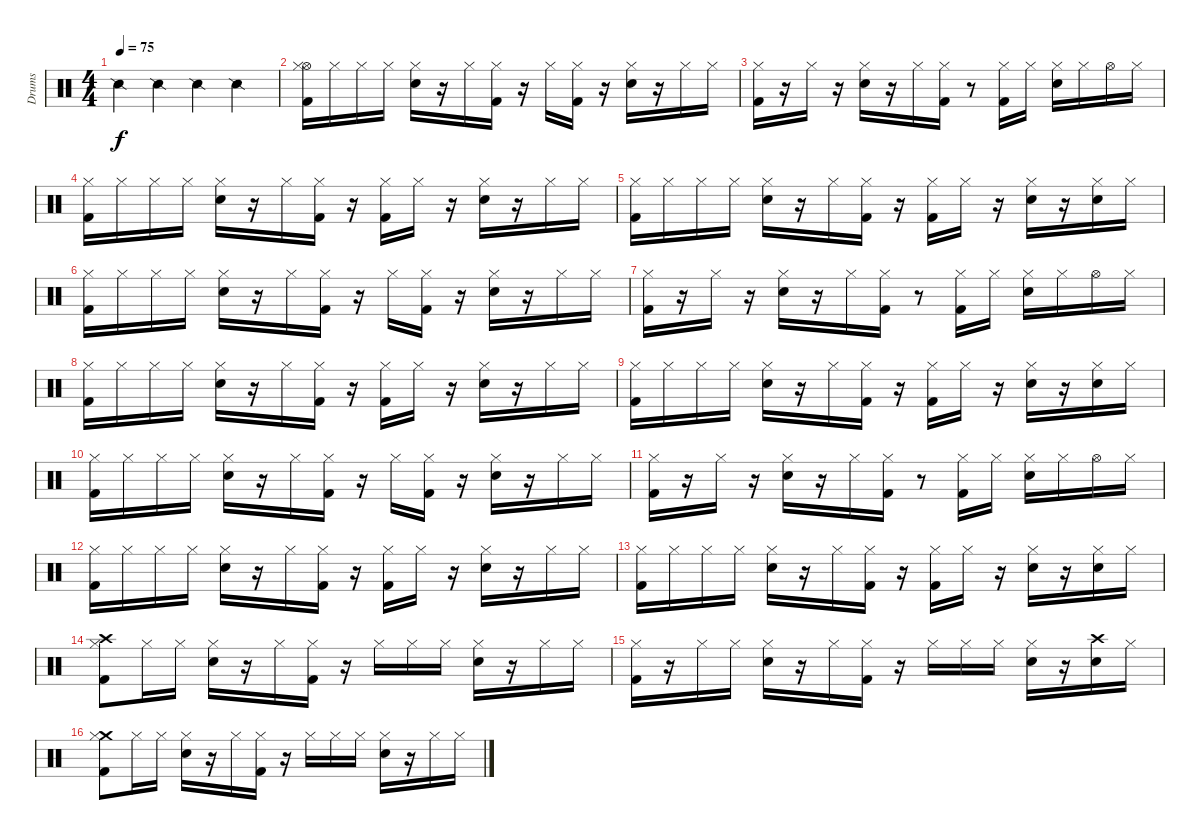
\track ("Drums" "Drums") {instrument percussion}
\staff {score}
\articulation defaults
\ts (4 4)
\tempo 75
\clef neutral
\ks c "Snare (side stick) 2".4{dy f} "Snare (side stick) 2".4 "Snare (side stick) 2".4 "Snare (side stick) 2".4
|
("Kick (hit) 2" "Hi-Hat (open)" "Hi-Hat (closed)").16 "Hi-Hat (closed)".16 "Hi-Hat (closed)".16 "Hi-Hat (closed)".16 ("Hi-Hat (closed)" "Snare (hit) 2").16 r.16 "Hi-Hat (closed)".16 ("Kick (hit) 2" "Hi-Hat (closed)").16 r.16 "Hi-Hat (closed)".16 ("Kick (hit) 2" "Hi-Hat (closed)").16 r.16 ("Hi-Hat (closed)" "Snare (hit) 2").16 r.16 "Hi-Hat (closed)".16 "Hi-Hat (closed)".16 |
("Kick (hit) 2" "Hi-Hat (closed)").16 r.16 "Hi-Hat (closed)".16 r.16 ("Snare (hit) 2" "Hi-Hat (closed)").16 r.16 "Hi-Hat (closed)".16 ("Hi-Hat (closed)" "Kick (hit) 2").16 r.8 ("Hi-Hat (closed)" "Kick (hit) 2").16 "Hi-Hat (closed)".16 ("Snare (hit) 2" "Hi-Hat (closed)").16 "Hi-Hat (closed)".16 "Hi-Hat (open)".16 "Hi-Hat (closed)".16 |
("Hi-Hat (closed)" "Kick (hit) 2").16 "Hi-Hat (closed)".16 "Hi-Hat (closed)".16 "Hi-Hat (closed)".16 ("Snare (hit) 2" "Hi-Hat (closed)").16 r.16 "Hi-Hat (closed)".16 ("Hi-Hat (closed)" "Kick (hit) 2").16 r.16 ("Hi-Hat (closed)" "Kick (hit) 2").16 "Hi-Hat (closed)".16 r.16 ("Snare (hit) 2" "Hi-Hat (closed)").16 r.16 "Hi-Hat (closed)".16 "Hi-Hat (closed)".16 |
("Hi-Hat (closed)" "Kick (hit) 2").16 "Hi-Hat (closed)".16 "Hi-Hat (closed)".16 "Hi-Hat (closed)".16 ("Hi-Hat (closed)" "Snare (hit) 2").16 r.16 "Hi-Hat (closed)".16 ("Kick (hit) 2" "Hi-Hat (closed)").16 r.16 ("Hi-Hat (closed)" "Kick (hit) 2").16 "Hi-Hat (closed)".16 r.16 ("Snare (hit) 2" "Hi-Hat (closed)").16 r.16 ("Snare (hit) 2" "Hi-Hat (closed)").16 "Hi-Hat (closed)".16 |
("Hi-Hat (closed)" "Kick (hit) 2").16 "Hi-Hat (closed)".16 "Hi-Hat (closed)".16 "Hi-Hat (closed)".16 ("Hi-Hat (closed)" "Snare (hit) 2").16 r.16 "Hi-Hat (closed)".16 ("Hi-Hat (closed)" "Kick (hit) 2").16 r.16 "Hi-Hat (closed)".16 ("Hi-Hat (closed)" "Kick (hit) 2").16 r.16 ("Hi-Hat (closed)" "Snare (hit) 2").16 r.16 "Hi-Hat (closed)".16 "Hi-Hat (closed)".16 |
("Kick (hit) 2" "Hi-Hat (closed)").16 r.16 "Hi-Hat (closed)".16 r.16 ("Hi-Hat (closed)" "Snare (hit) 2").16 r.16 "Hi-Hat (closed)".16 ("Kick (hit) 2" "Hi-Hat (closed)").16 r.8 ("Kick (hit) 2" "Hi-Hat (closed)").16 "Hi-Hat (closed)".16 ("Snare (hit) 2" "Hi-Hat (closed)").16 "Hi-Hat (closed)".16 "Hi-Hat (open)".16 "Hi-Hat (closed)".16 |
("Kick (hit) 2" "Hi-Hat (closed)").16 "Hi-Hat (closed)".16 "Hi-Hat (closed)".16 "Hi-Hat (closed)".16 ("Hi-Hat (closed)" "Snare (hit) 2").16 r.16 "Hi-Hat (closed)".16 ("Kick (hit) 2" "Hi-Hat (closed)").16 r.16 ("Kick (hit) 2" "Hi-Hat (closed)").16 "Hi-Hat (closed)".16 r.16 ("Snare (hit) 2" "Hi-Hat (closed)").16 r.16 "Hi-Hat (closed)".16 "Hi-Hat (closed)".16 |
("Kick (hit) 2" "Hi-Hat (closed)").16 "Hi-Hat (closed)".16 "Hi-Hat (closed)".16 "Hi-Hat (closed)".16 ("Snare (hit) 2" "Hi-Hat (closed)").16 r.16 "Hi-Hat (closed)".16 ("Kick (hit) 2" "Hi-Hat (closed)").16 r.16 ("Kick (hit) 2" "Hi-Hat (closed)").16 "Hi-Hat (closed)".16 r.16 ("Snare (hit) 2" "Hi-Hat (closed)").16 r.16 ("Hi-Hat (closed)" "Snare (hit) 2").16 "Hi-Hat (closed)".16 |
("Kick (hit) 2" "Hi-Hat (closed)").16 "Hi-Hat (closed)".16 "Hi-Hat (closed)".16 "Hi-Hat (closed)".16 ("Snare (hit) 2" "Hi-Hat (closed)").16 r.16 "Hi-Hat (closed)".16 ("Kick (hit) 2" "Hi-Hat (closed)").16 r.16 "Hi-Hat (closed)".16 ("Hi-Hat (closed)" "Kick (hit) 2").16 r.16 ("Snare (hit) 2" "Hi-Hat (closed)").16 r.16 "Hi-Hat (closed)".16 "Hi-Hat (closed)".16 |
("Kick (hit) 2" "Hi-Hat (closed)").16 r.16 "Hi-Hat (closed)".16 r.16 ("Hi-Hat (closed)" "Snare (hit) 2").16 r.16 "Hi-Hat (closed)".16 ("Hi-Hat (closed)" "Kick (hit) 2").16 r.8 ("Hi-Hat (closed)" "Kick (hit) 2").16 "Hi-Hat (closed)".16 ("Hi-Hat (closed)" "Snare (hit) 2").16 "Hi-Hat (closed)".16 "Hi-Hat (open)".16 "Hi-Hat (closed)".16 |
("Kick (hit) 2" "Hi-Hat (closed)").16 "Hi-Hat (closed)".16 "Hi-Hat (closed)".16 "Hi-Hat (closed)".16 ("Hi-Hat (closed)" "Snare (hit) 2").16 r.16 "Hi-Hat (closed)".16 ("Hi-Hat (closed)" "Kick (hit) 2").16 r.16 ("Hi-Hat (closed)" "Kick (hit) 2").16 "Hi-Hat (closed)".16 r.16 ("Hi-Hat (closed)" "Snare (hit) 2").16 r.16 "Hi-Hat (closed)".16 "Hi-Hat (closed)".16 |
("Hi-Hat (closed)" "Kick (hit) 2").16 "Hi-Hat (closed)".16 "Hi-Hat (closed)".16 "Hi-Hat (closed)".16 ("Hi-Hat (closed)" "Snare (hit) 2").16 r.16 "Hi-Hat (closed)".16 ("Hi-Hat (closed)" "Kick (hit) 2").16 r.16 ("Hi-Hat (closed)" "Kick (hit) 2").16 "Hi-Hat (closed)".16 r.16 ("Snare (hit) 2" "Hi-Hat (closed)").16 r.16 ("Hi-Hat (closed)" "Snare (hit) 2").16 "Hi-Hat (closed)".16 |
("Crash high (hit)" "Kick (hit) 2" "Hi-Hat (closed)").8 "Hi-Hat (closed)".16 "Hi-Hat (closed)".16 ("Snare (hit) 2" "Hi-Hat (closed)").16 r.16 "Hi-Hat (closed)".16 ("Hi-Hat (closed)" "Kick (hit) 2").16 r.16 "Hi-Hat (closed)".16 "Hi-Hat (closed)".16 "Hi-Hat (closed)".16 ("Snare (hit) 2" "Hi-Hat (closed)").16 r.16 "Hi-Hat (closed)".16 "Hi-Hat (closed)".16 |
("Hi-Hat (closed)" "Kick (hit) 2").16 r.16 "Hi-Hat (closed)".16 "Hi-Hat (closed)".16 ("Hi-Hat (closed)" "Snare (hit) 2").16 r.16 "Hi-Hat (closed)".16 ("Kick (hit) 2" "Hi-Hat (closed)").16 r.16 "Hi-Hat (closed)".16 "Hi-Hat (closed)".16 "Hi-Hat (closed)".16 ("Hi-Hat (closed)" "Snare (hit) 2").16 r.16 ("Crash high (hit)" "Snare (hit) 2").16 "Hi-Hat (closed)".16 |
("Crash medium (hit)" "Kick (hit) 2" "Hi-Hat (closed)").8 "Hi-Hat (closed)".16 "Hi-Hat (closed)".16 ("Snare (hit) 2" "Hi-Hat (closed)").16 r.16 "Hi-Hat (closed)".16 ("Hi-Hat (closed)" "Kick (hit) 2").16 r.16 "Hi-Hat (closed)".16 "Hi-Hat (closed)".16 "Hi-Hat (closed)".16 ("Hi-Hat (closed)" "Snare (hit) 2").16 r.16 "Hi-Hat (closed)".16 "Hi-Hat (closed)".16
